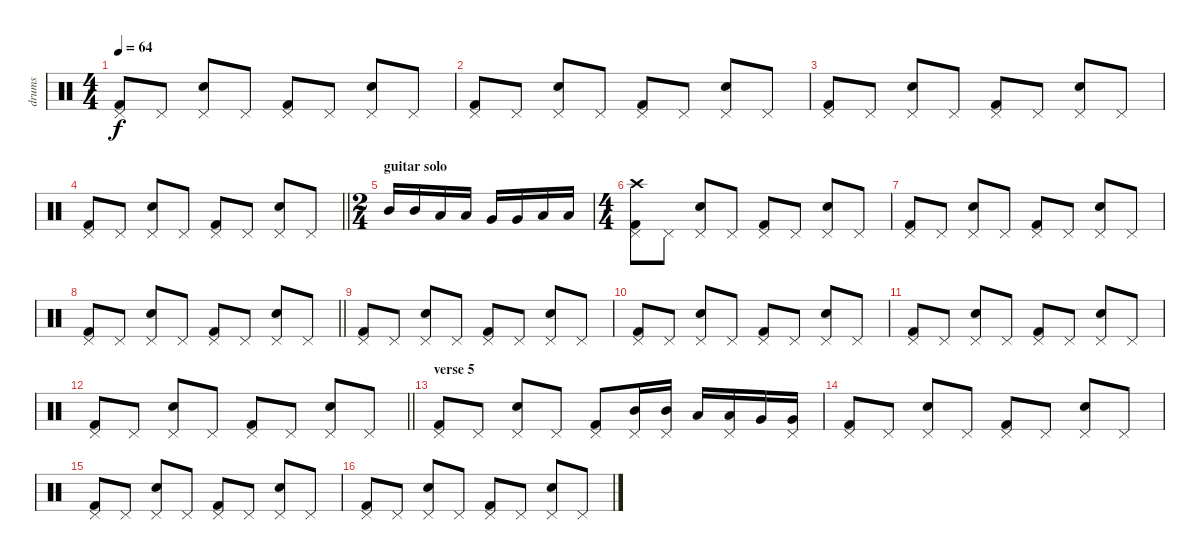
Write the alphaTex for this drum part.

\track ("drums" "drums") {instrument percussion}
\staff {score}
\articulation defaults
\ts (4 4)
\tempo 64
\clef neutral
\ks c
("Kick (hit) 2" "Pedal Hi-Hat (hit)").8{dy f} "Pedal Hi-Hat (hit)".8 ("Electric Snare (hit)" "Pedal Hi-Hat (hit)").8 "Pedal Hi-Hat (hit)".8 ("Kick (hit) 2" "Pedal Hi-Hat (hit)").8 "Pedal Hi-Hat (hit)".8 ("Electric Snare (hit)" "Pedal Hi-Hat (hit)").8 "Pedal Hi-Hat (hit)".8 |
("Kick (hit) 2" "Pedal Hi-Hat (hit)").8 "Pedal Hi-Hat (hit)".8 ("Electric Snare (hit)" "Pedal Hi-Hat (hit)").8 "Pedal Hi-Hat (hit)".8 ("Kick (hit) 2" "Pedal Hi-Hat (hit)").8 "Pedal Hi-Hat (hit)".8 ("Electric Snare (hit)" "Pedal Hi-Hat (hit)").8 "Pedal Hi-Hat (hit)".8 |
("Kick (hit) 2" "Pedal Hi-Hat (hit)").8 "Pedal Hi-Hat (hit)".8 ("Electric Snare (hit)" "Pedal Hi-Hat (hit)").8 "Pedal Hi-Hat (hit)".8 ("Kick (hit) 2" "Pedal Hi-Hat (hit)").8 "Pedal Hi-Hat (hit)".8 ("Electric Snare (hit)" "Pedal Hi-Hat (hit)").8 "Pedal Hi-Hat (hit)".8 |
\barLineRight lightlight
("Kick (hit) 2" "Pedal Hi-Hat (hit)").8 "Pedal Hi-Hat (hit)".8 ("Electric Snare (hit)" "Pedal Hi-Hat (hit)").8 "Pedal Hi-Hat (hit)".8 ("Kick (hit) 2" "Pedal Hi-Hat (hit)").8 "Pedal Hi-Hat (hit)".8 ("Electric Snare (hit)" "Pedal Hi-Hat (hit)").8 "Pedal Hi-Hat (hit)".8 |
\ts (2 4)
\section ("" "guitar solo")
"Mid Tom (hit)".16 "Mid Tom (hit)".16 "Low Tom (hit)".16 "Low Tom (hit)".16 "Very Low Tom (hit)".16 "Very Low Tom (hit)".16 "Low Floor Tom (hit)".16 "Low Floor Tom (hit)".16 |
\ts (4 4)
("Kick (hit) 2" "Pedal Hi-Hat (hit)" "Crash high (hit)").8 "Pedal Hi-Hat (hit)".8 ("Electric Snare (hit)" "Pedal Hi-Hat (hit)").8 "Pedal Hi-Hat (hit)".8 ("Kick (hit) 2" "Pedal Hi-Hat (hit)").8 "Pedal Hi-Hat (hit)".8 ("Electric Snare (hit)" "Pedal Hi-Hat (hit)").8 "Pedal Hi-Hat (hit)".8 |
("Kick (hit) 2" "Pedal Hi-Hat (hit)").8 "Pedal Hi-Hat (hit)".8 ("Electric Snare (hit)" "Pedal Hi-Hat (hit)").8 "Pedal Hi-Hat (hit)".8 ("Kick (hit) 2" "Pedal Hi-Hat (hit)").8 "Pedal Hi-Hat (hit)".8 ("Electric Snare (hit)" "Pedal Hi-Hat (hit)").8 "Pedal Hi-Hat (hit)".8 |
\barLineRight lightlight
("Kick (hit) 2" "Pedal Hi-Hat (hit)").8 "Pedal Hi-Hat (hit)".8 ("Electric Snare (hit)" "Pedal Hi-Hat (hit)").8 "Pedal Hi-Hat (hit)".8 ("Kick (hit) 2" "Pedal Hi-Hat (hit)").8 "Pedal Hi-Hat (hit)".8 ("Electric Snare (hit)" "Pedal Hi-Hat (hit)").8 "Pedal Hi-Hat (hit)".8 |
("Kick (hit) 2" "Pedal Hi-Hat (hit)").8 "Pedal Hi-Hat (hit)".8 ("Electric Snare (hit)" "Pedal Hi-Hat (hit)").8 "Pedal Hi-Hat (hit)".8 ("Kick (hit) 2" "Pedal Hi-Hat (hit)").8 "Pedal Hi-Hat (hit)".8 ("Electric Snare (hit)" "Pedal Hi-Hat (hit)").8 "Pedal Hi-Hat (hit)".8 |
("Kick (hit) 2" "Pedal Hi-Hat (hit)").8 "Pedal Hi-Hat (hit)".8 ("Electric Snare (hit)" "Pedal Hi-Hat (hit)").8 "Pedal Hi-Hat (hit)".8 ("Kick (hit) 2" "Pedal Hi-Hat (hit)").8 "Pedal Hi-Hat (hit)".8 ("Electric Snare (hit)" "Pedal Hi-Hat (hit)").8 "Pedal Hi-Hat (hit)".8 |
("Kick (hit) 2" "Pedal Hi-Hat (hit)").8 "Pedal Hi-Hat (hit)".8 ("Electric Snare (hit)" "Pedal Hi-Hat (hit)").8 "Pedal Hi-Hat (hit)".8 ("Kick (hit) 2" "Pedal Hi-Hat (hit)").8 "Pedal Hi-Hat (hit)".8 ("Electric Snare (hit)" "Pedal Hi-Hat (hit)").8 "Pedal Hi-Hat (hit)".8 |
\barLineRight lightlight
("Kick (hit) 2" "Pedal Hi-Hat (hit)").8 "Pedal Hi-Hat (hit)".8 ("Electric Snare (hit)" "Pedal Hi-Hat (hit)").8 "Pedal Hi-Hat (hit)".8 ("Kick (hit) 2" "Pedal Hi-Hat (hit)").8 "Pedal Hi-Hat (hit)".8 ("Electric Snare (hit)" "Pedal Hi-Hat (hit)").8 "Pedal Hi-Hat (hit)".8 |
\section ("" "verse 5")
("Kick (hit) 2" "Pedal Hi-Hat (hit)").8 "Pedal Hi-Hat (hit)".8 ("Electric Snare (hit)" "Pedal Hi-Hat (hit)").8 "Pedal Hi-Hat (hit)".8 ("Kick (hit) 2" "Pedal Hi-Hat (hit)").8 ("Mid Tom (hit)" "Pedal Hi-Hat (hit)").16 ("Mid Tom (hit)" "Pedal Hi-Hat (hit)").16 "Low Tom (hit)".16 ("Low Tom (hit)" "Pedal Hi-Hat (hit)").16 "Very Low Tom (hit)".16 ("Very Low Tom (hit)" "Pedal Hi-Hat (hit)").16 |
("Kick (hit) 2" "Pedal Hi-Hat (hit)").8 "Pedal Hi-Hat (hit)".8 ("Electric Snare (hit)" "Pedal Hi-Hat (hit)").8 "Pedal Hi-Hat (hit)".8 ("Kick (hit) 2" "Pedal Hi-Hat (hit)").8 "Pedal Hi-Hat (hit)".8 ("Electric Snare (hit)" "Pedal Hi-Hat (hit)").8 "Pedal Hi-Hat (hit)".8 |
("Kick (hit) 2" "Pedal Hi-Hat (hit)").8 "Pedal Hi-Hat (hit)".8 ("Electric Snare (hit)" "Pedal Hi-Hat (hit)").8 "Pedal Hi-Hat (hit)".8 ("Kick (hit) 2" "Pedal Hi-Hat (hit)").8 "Pedal Hi-Hat (hit)".8 ("Electric Snare (hit)" "Pedal Hi-Hat (hit)").8 "Pedal Hi-Hat (hit)".8 |
("Kick (hit) 2" "Pedal Hi-Hat (hit)").8 "Pedal Hi-Hat (hit)".8 ("Electric Snare (hit)" "Pedal Hi-Hat (hit)").8 "Pedal Hi-Hat (hit)".8 ("Kick (hit) 2" "Pedal Hi-Hat (hit)").8 "Pedal Hi-Hat (hit)".8 ("Electric Snare (hit)" "Pedal Hi-Hat (hit)").8 "Pedal Hi-Hat (hit)".8
